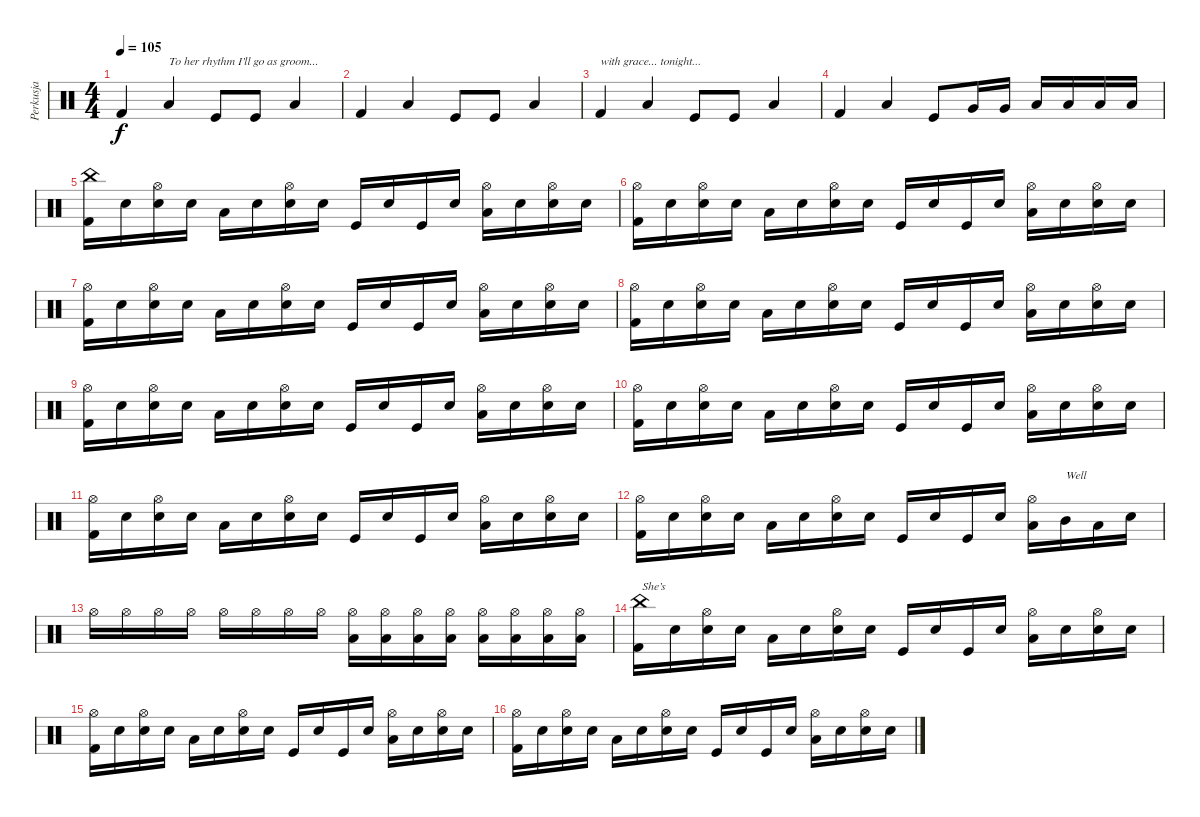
\track ("Perkusja" "Perkusja") {instrument percussion}
\staff {score}
\articulation defaults
\ts (4 4)
\tempo 105
\clef neutral
\ks c "Kick (hit) 2".4{dy f} "Low Tom (hit)".4{txt "To her rhythm I’ll go as groom..."} "Kick (hit)".8 "Kick (hit)".8 "Low Tom (hit)".4
|
"Kick (hit) 2".4 "Low Tom (hit)".4 "Kick (hit)".8 "Kick (hit)".8 "Low Tom (hit)".4 |
"Kick (hit) 2".4{txt "with grace... tonight... "} "Low Tom (hit)".4 "Kick (hit)".8 "Kick (hit)".8 "Low Tom (hit)".4 |
"Kick (hit) 2".4 "Low Tom (hit)".4 "Kick (hit)".8 "Very Low Tom (hit)".16 "Very Low Tom (hit)".16 "Low Tom (hit)".16 "Low Tom (hit)".16 "Low Tom (hit)".16 "Low Tom (hit)".16 |
("China (hit)" "Kick (hit) 2").16 "Snare (hit)".16 ("Hi-Hat (open)" "Snare (hit)").16 "Snare (hit)".16 "Low Tom (hit)".16 "Snare (hit)".16 ("Hi-Hat (open)" "Snare (hit)").16 "Snare (hit)".16 "Kick (hit)".16 "Snare (hit)".16 "Kick (hit)".16 "Snare (hit)".16 ("Hi-Hat (open)" "Low Tom (hit)").16 "Snare (hit)".16 ("Hi-Hat (open)" "Snare (hit)").16 "Snare (hit)".16 |
("Hi-Hat (open)" "Kick (hit) 2").16 "Snare (hit)".16 ("Hi-Hat (open)" "Snare (hit)").16 "Snare (hit)".16 "Low Tom (hit)".16 "Snare (hit)".16 ("Hi-Hat (open)" "Snare (hit)").16 "Snare (hit)".16 "Kick (hit)".16 "Snare (hit)".16 "Kick (hit)".16 "Snare (hit)".16 ("Hi-Hat (open)" "Low Tom (hit)").16 "Snare (hit)".16 ("Hi-Hat (open)" "Snare (hit)").16 "Snare (hit)".16 |
("Hi-Hat (open)" "Kick (hit) 2").16 "Snare (hit)".16 ("Hi-Hat (open)" "Snare (hit)").16 "Snare (hit)".16 "Low Tom (hit)".16 "Snare (hit)".16 ("Hi-Hat (open)" "Snare (hit)").16 "Snare (hit)".16 "Kick (hit)".16 "Snare (hit)".16 "Kick (hit)".16 "Snare (hit)".16 ("Hi-Hat (open)" "Low Tom (hit)").16 "Snare (hit)".16 ("Hi-Hat (open)" "Snare (hit)").16 "Snare (hit)".16 |
("Hi-Hat (open)" "Kick (hit) 2").16 "Snare (hit)".16 ("Hi-Hat (open)" "Snare (hit)").16 "Snare (hit)".16 "Low Tom (hit)".16 "Snare (hit)".16 ("Hi-Hat (open)" "Snare (hit)").16 "Snare (hit)".16 "Kick (hit)".16 "Snare (hit)".16 "Kick (hit)".16 "Snare (hit)".16 ("Hi-Hat (open)" "Low Tom (hit)").16 "Snare (hit)".16 ("Hi-Hat (open)" "Snare (hit)").16 "Snare (hit)".16 |
("Hi-Hat (open)" "Kick (hit) 2").16 "Snare (hit)".16 ("Hi-Hat (open)" "Snare (hit)").16 "Snare (hit)".16 "Low Tom (hit)".16 "Snare (hit)".16 ("Hi-Hat (open)" "Snare (hit)").16 "Snare (hit)".16 "Kick (hit)".16 "Snare (hit)".16 "Kick (hit)".16 "Snare (hit)".16 ("Hi-Hat (open)" "Low Tom (hit)").16 "Snare (hit)".16 ("Hi-Hat (open)" "Snare (hit)").16 "Snare (hit)".16 |
("Hi-Hat (open)" "Kick (hit) 2").16 "Snare (hit)".16 ("Hi-Hat (open)" "Snare (hit)").16 "Snare (hit)".16 "Low Tom (hit)".16 "Snare (hit)".16 ("Hi-Hat (open)" "Snare (hit)").16 "Snare (hit)".16 "Kick (hit)".16 "Snare (hit)".16 "Kick (hit)".16 "Snare (hit)".16 ("Hi-Hat (open)" "Low Tom (hit)").16 "Snare (hit)".16 ("Hi-Hat (open)" "Snare (hit)").16 "Snare (hit)".16 |
("Hi-Hat (open)" "Kick (hit) 2").16 "Snare (hit)".16 ("Hi-Hat (open)" "Snare (hit)").16 "Snare (hit)".16 "Low Tom (hit)".16 "Snare (hit)".16 ("Hi-Hat (open)" "Snare (hit)").16 "Snare (hit)".16 "Kick (hit)".16 "Snare (hit)".16 "Kick (hit)".16 "Snare (hit)".16 ("Hi-Hat (open)" "Low Tom (hit)").16 "Snare (hit)".16 ("Hi-Hat (open)" "Snare (hit)").16 "Snare (hit)".16 |
("Hi-Hat (open)" "Kick (hit) 2").16 "Snare (hit)".16 ("Hi-Hat (open)" "Snare (hit)").16 "Snare (hit)".16 "Low Tom (hit)".16 "Snare (hit)".16 ("Hi-Hat (open)" "Snare (hit)").16 "Snare (hit)".16 "Kick (hit)".16 "Snare (hit)".16 "Kick (hit)".16 "Snare (hit)".16 ("Hi-Hat (open)" "Low Tom (hit)").16 "Mid Tom (hit)".16{txt "Well "} "Low Tom (hit)".16 "Snare (hit)".16 |
"Hi-Hat (open)".16 "Hi-Hat (open)".16 "Hi-Hat (open)".16 "Hi-Hat (open)".16 "Hi-Hat (open)".16 "Hi-Hat (open)".16 "Hi-Hat (open)".16 "Hi-Hat (open)".16 ("Low Tom (hit)" "Hi-Hat (open)").16 ("Low Tom (hit)" "Hi-Hat (open)").16 ("Low Tom (hit)" "Hi-Hat (open)").16 ("Low Tom (hit)" "Hi-Hat (open)").16 ("Low Tom (hit)" "Hi-Hat (open)").16 ("Low Tom (hit)" "Hi-Hat (open)").16 ("Low Tom (hit)" "Hi-Hat (open)").16 ("Low Tom (hit)" "Hi-Hat (open)").16 |
("China (hit)" "Kick (hit) 2").16{txt "She’s "} "Snare (hit)".16 ("Hi-Hat (open)" "Snare (hit)").16 "Snare (hit)".16 "Low Tom (hit)".16 "Snare (hit)".16 ("Hi-Hat (open)" "Snare (hit)").16 "Snare (hit)".16 "Kick (hit)".16 "Snare (hit)".16 "Kick (hit)".16 "Snare (hit)".16 ("Hi-Hat (open)" "Low Tom (hit)").16 "Snare (hit)".16 ("Hi-Hat (open)" "Snare (hit)").16 "Snare (hit)".16 |
("Hi-Hat (open)" "Kick (hit) 2").16 "Snare (hit)".16 ("Hi-Hat (open)" "Snare (hit)").16 "Snare (hit)".16 "Low Tom (hit)".16 "Snare (hit)".16 ("Hi-Hat (open)" "Snare (hit)").16 "Snare (hit)".16 "Kick (hit)".16 "Snare (hit)".16 "Kick (hit)".16 "Snare (hit)".16 ("Hi-Hat (open)" "Low Tom (hit)").16 "Snare (hit)".16 ("Hi-Hat (open)" "Snare (hit)").16 "Snare (hit)".16 |
("Hi-Hat (open)" "Kick (hit) 2").16 "Snare (hit)".16 ("Hi-Hat (open)" "Snare (hit)").16 "Snare (hit)".16 "Low Tom (hit)".16 "Snare (hit)".16 ("Hi-Hat (open)" "Snare (hit)").16 "Snare (hit)".16 "Kick (hit)".16 "Snare (hit)".16 "Kick (hit)".16 "Snare (hit)".16 ("Hi-Hat (open)" "Low Tom (hit)").16 "Snare (hit)".16 ("Hi-Hat (open)" "Snare (hit)").16 "Snare (hit)".16
